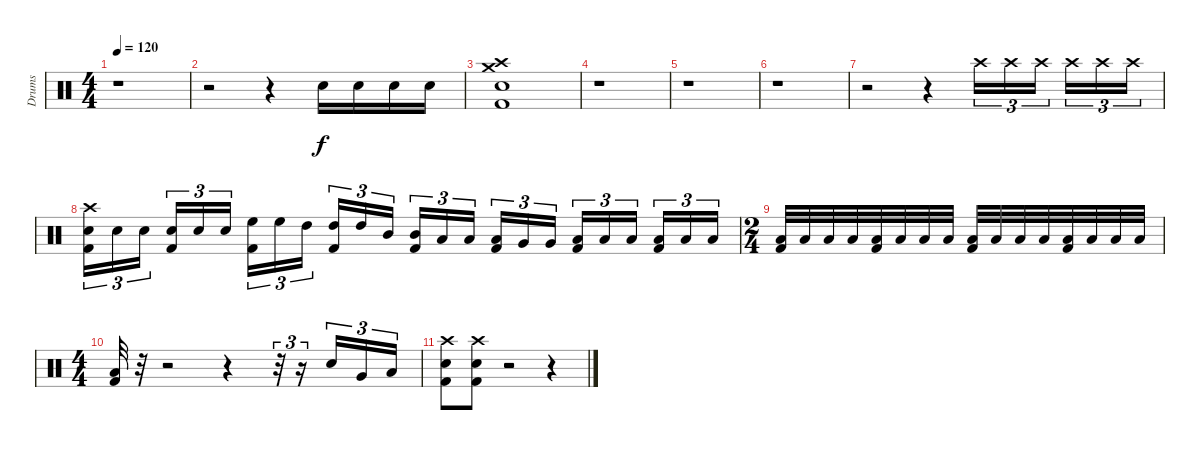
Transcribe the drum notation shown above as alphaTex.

\track ("Drums" "Drums") {instrument percussion}
\staff {score}
\articulation defaults
\ts (4 4)
\tempo 120
\clef neutral
\ks c
r.1{dy f} |
r.2 r.4 "Snare (hit) 2".16 "Snare (hit) 2".16 "Snare (hit) 2".16 "Snare (hit) 2".16 |
("Kick (hit) 2" "Snare (hit) 2" "Crash high (hit)" "Crash medium (hit)").1 |
r.1 |
r.1 |
r.1 |
r.2 r.4 "Crash high (hit)".16{tu (3 2)} "Crash high (hit)".16{tu (3 2)} "Crash high (hit)".16{tu (3 2)} "Crash high (hit)".16{tu (3 2)} "Crash high (hit)".16{tu (3 2)} "Crash high (hit)".16{tu (3 2)} |
("Crash high (hit)" "Snare (hit) 2" "Kick (hit) 2").16{tu (3 2)} "Snare (hit) 2".16{tu (3 2)} "Snare (hit) 2".16{tu (3 2)} ("Snare (hit) 2" "Kick (hit) 2").16{tu (3 2)} "Snare (hit) 2".16{tu (3 2)} "Snare (hit) 2".16{tu (3 2)} ("High Floor Tom (hit)" "Kick (hit) 2").16{tu (3 2)} "High Floor Tom (hit)".16{tu (3 2)} "High Tom (hit)".16{tu (3 2)} ("High Tom (hit)" "Kick (hit) 2").16{tu (3 2)} "High Tom (hit)".16{tu (3 2)} "Mid Tom (hit)".16{tu (3 2)} ("Mid Tom (hit)" "Kick (hit) 2").16{tu (3 2)} "Low Tom (hit)".16{tu (3 2)} "Low Tom (hit)".16{tu (3 2)} ("Low Tom (hit)" "Kick (hit) 2").16{tu (3 2)} "Very Low Tom (hit)".16{tu (3 2)} "Very Low Tom (hit)".16{tu (3 2)} ("Low Floor Tom (hit)" "Kick (hit) 2").16{tu (3 2)} "Low Floor Tom (hit)".16{tu (3 2)} "Low Floor Tom (hit)".16{tu (3 2)} ("Low Floor Tom (hit)" "Kick (hit) 2").16{tu (3 2)} "Low Floor Tom (hit)".16{tu (3 2)} "Low Floor Tom (hit)".16{tu (3 2)} |
\ts (2 4)
("Low Floor Tom (hit)" "Kick (hit) 2").32 "Low Floor Tom (hit)".32 "Low Floor Tom (hit)".32 "Low Floor Tom (hit)".32 ("Low Floor Tom (hit)" "Kick (hit) 2").32 "Low Floor Tom (hit)".32 "Low Floor Tom (hit)".32 "Low Floor Tom (hit)".32 ("Low Floor Tom (hit)" "Kick (hit) 2").32 "Low Floor Tom (hit)".32 "Low Floor Tom (hit)".32 "Low Floor Tom (hit)".32 ("Low Floor Tom (hit)" "Kick (hit) 2").32 "Low Floor Tom (hit)".32 "Low Floor Tom (hit)".32 "Low Floor Tom (hit)".32 |
\ts (4 4)
("Low Floor Tom (hit)" "Kick (hit) 2").32 r.32 r.2 r.4 r.32{tu (3 2)} r.16{tu (3 2)} "Snare (hit) 2".16{tu (3 2)} "Very Low Tom (hit)".16{tu (3 2)} "Low Floor Tom (hit)".16{tu (3 2)} |
("Crash high (hit)" "Snare (hit) 2" "Kick (hit) 2").8 ("Crash high (hit)" "Snare (hit) 2" "Kick (hit) 2").8 r.2 r.4
